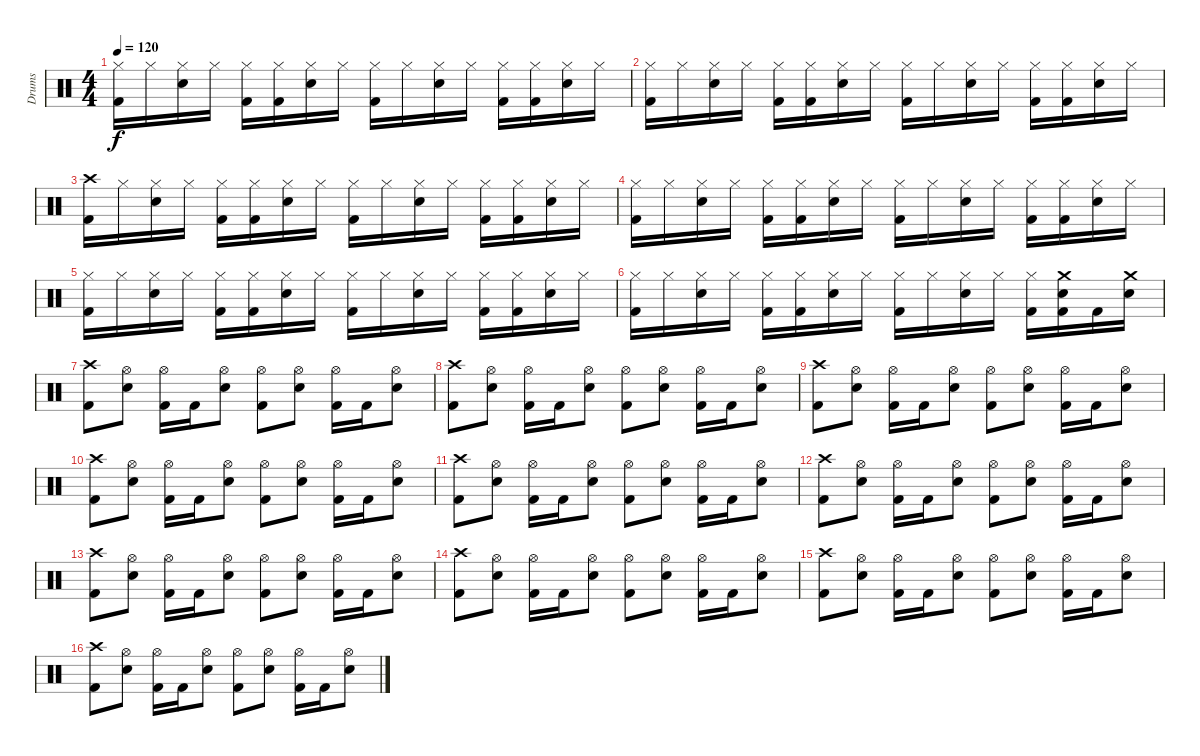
\track ("Drums" "Drums") {instrument percussion}
\staff {score}
\articulation defaults
\ts (4 4)
\tempo 120
\clef neutral
\ks c
("Hi-Hat (closed)" "Kick (hit) 2").16{dy f} "Hi-Hat (closed)".16 ("Hi-Hat (closed)" "Snare (hit) 2").16 "Hi-Hat (closed)".16 ("Hi-Hat (closed)" "Kick (hit) 2").16 ("Hi-Hat (closed)" "Kick (hit) 2").16 ("Hi-Hat (closed)" "Snare (hit) 2").16 "Hi-Hat (closed)".16 ("Hi-Hat (closed)" "Kick (hit) 2").16 "Hi-Hat (closed)".16 ("Hi-Hat (closed)" "Snare (hit) 2").16 "Hi-Hat (closed)".16 ("Hi-Hat (closed)" "Kick (hit) 2").16 ("Hi-Hat (closed)" "Kick (hit) 2").16 ("Hi-Hat (closed)" "Snare (hit) 2").16 "Hi-Hat (closed)".16 |
("Hi-Hat (closed)" "Kick (hit) 2").16 "Hi-Hat (closed)".16 ("Hi-Hat (closed)" "Snare (hit) 2").16 "Hi-Hat (closed)".16 ("Hi-Hat (closed)" "Kick (hit) 2").16 ("Hi-Hat (closed)" "Kick (hit) 2").16 ("Hi-Hat (closed)" "Snare (hit) 2").16 "Hi-Hat (closed)".16 ("Hi-Hat (closed)" "Kick (hit) 2").16 "Hi-Hat (closed)".16 ("Hi-Hat (closed)" "Snare (hit) 2").16 "Hi-Hat (closed)".16 ("Hi-Hat (closed)" "Kick (hit) 2").16 ("Hi-Hat (closed)" "Kick (hit) 2").16 ("Hi-Hat (closed)" "Snare (hit) 2").16 "Hi-Hat (closed)".16 |
("Crash high (hit)" "Kick (hit) 2").16 "Hi-Hat (closed)".16 ("Hi-Hat (closed)" "Snare (hit) 2").16 "Hi-Hat (closed)".16 ("Hi-Hat (closed)" "Kick (hit) 2").16 ("Hi-Hat (closed)" "Kick (hit) 2").16 ("Hi-Hat (closed)" "Snare (hit) 2").16 "Hi-Hat (closed)".16 ("Hi-Hat (closed)" "Kick (hit) 2").16 "Hi-Hat (closed)".16 ("Hi-Hat (closed)" "Snare (hit) 2").16 "Hi-Hat (closed)".16 ("Hi-Hat (closed)" "Kick (hit) 2").16 ("Hi-Hat (closed)" "Kick (hit) 2").16 ("Hi-Hat (closed)" "Snare (hit) 2").16 "Hi-Hat (closed)".16 |
("Hi-Hat (closed)" "Kick (hit) 2").16 "Hi-Hat (closed)".16 ("Hi-Hat (closed)" "Snare (hit) 2").16 "Hi-Hat (closed)".16 ("Hi-Hat (closed)" "Kick (hit) 2").16 ("Hi-Hat (closed)" "Kick (hit) 2").16 ("Hi-Hat (closed)" "Snare (hit) 2").16 "Hi-Hat (closed)".16 ("Hi-Hat (closed)" "Kick (hit) 2").16 "Hi-Hat (closed)".16 ("Hi-Hat (closed)" "Snare (hit) 2").16 "Hi-Hat (closed)".16 ("Hi-Hat (closed)" "Kick (hit) 2").16 ("Hi-Hat (closed)" "Kick (hit) 2").16 ("Hi-Hat (closed)" "Snare (hit) 2").16 "Hi-Hat (closed)".16 |
("Hi-Hat (closed)" "Kick (hit) 2").16 "Hi-Hat (closed)".16 ("Hi-Hat (closed)" "Snare (hit) 2").16 "Hi-Hat (closed)".16 ("Hi-Hat (closed)" "Kick (hit) 2").16 ("Hi-Hat (closed)" "Kick (hit) 2").16 ("Hi-Hat (closed)" "Snare (hit) 2").16 "Hi-Hat (closed)".16 ("Hi-Hat (closed)" "Kick (hit) 2").16 "Hi-Hat (closed)".16 ("Hi-Hat (closed)" "Snare (hit) 2").16 "Hi-Hat (closed)".16 ("Hi-Hat (closed)" "Kick (hit) 2").16 ("Hi-Hat (closed)" "Kick (hit) 2").16 ("Hi-Hat (closed)" "Snare (hit) 2").16 "Hi-Hat (closed)".16 |
("Hi-Hat (closed)" "Kick (hit) 2").16 "Hi-Hat (closed)".16 ("Hi-Hat (closed)" "Snare (hit) 2").16 "Hi-Hat (closed)".16 ("Hi-Hat (closed)" "Kick (hit) 2").16 ("Hi-Hat (closed)" "Kick (hit) 2").16 ("Hi-Hat (closed)" "Snare (hit) 2").16 "Hi-Hat (closed)".16 ("Hi-Hat (closed)" "Kick (hit) 2").16 "Hi-Hat (closed)".16 ("Hi-Hat (closed)" "Snare (hit) 2").16 "Hi-Hat (closed)".16 ("Hi-Hat (closed)" "Kick (hit) 2").16 ("Crash medium (hit)" "Snare (hit) 2" "Kick (hit) 2").16 "Kick (hit) 2".16 ("Crash medium (hit)" "Snare (hit) 2").16 |
("Crash high (hit)" "Kick (hit) 2").8 ("Hi-Hat (open)" "Snare (hit) 2").8 ("Hi-Hat (open)" "Kick (hit) 2").16 "Kick (hit) 2".16 ("Hi-Hat (open)" "Snare (hit) 2").8 ("Hi-Hat (open)" "Kick (hit) 2").8 ("Hi-Hat (open)" "Snare (hit) 2").8 ("Hi-Hat (open)" "Kick (hit) 2").16 "Kick (hit) 2".16 ("Hi-Hat (open)" "Snare (hit) 2").8 |
("Crash high (hit)" "Kick (hit) 2").8 ("Hi-Hat (open)" "Snare (hit) 2").8 ("Hi-Hat (open)" "Kick (hit) 2").16 "Kick (hit) 2".16 ("Hi-Hat (open)" "Snare (hit) 2").8 ("Hi-Hat (open)" "Kick (hit) 2").8 ("Hi-Hat (open)" "Snare (hit) 2").8 ("Hi-Hat (open)" "Kick (hit) 2").16 "Kick (hit) 2".16 ("Hi-Hat (open)" "Snare (hit) 2").8 |
("Crash high (hit)" "Kick (hit) 2").8 ("Hi-Hat (open)" "Snare (hit) 2").8 ("Hi-Hat (open)" "Kick (hit) 2").16 "Kick (hit) 2".16 ("Hi-Hat (open)" "Snare (hit) 2").8 ("Hi-Hat (open)" "Kick (hit) 2").8 ("Hi-Hat (open)" "Snare (hit) 2").8 ("Hi-Hat (open)" "Kick (hit) 2").16 "Kick (hit) 2".16 ("Hi-Hat (open)" "Snare (hit) 2").8 |
("Crash high (hit)" "Kick (hit) 2").8 ("Hi-Hat (open)" "Snare (hit) 2").8 ("Hi-Hat (open)" "Kick (hit) 2").16 "Kick (hit) 2".16 ("Hi-Hat (open)" "Snare (hit) 2").8 ("Hi-Hat (open)" "Kick (hit) 2").8 ("Hi-Hat (open)" "Snare (hit) 2").8 ("Hi-Hat (open)" "Kick (hit) 2").16 "Kick (hit) 2".16 ("Hi-Hat (open)" "Snare (hit) 2").8 |
("Crash high (hit)" "Kick (hit) 2").8 ("Hi-Hat (open)" "Snare (hit) 2").8 ("Hi-Hat (open)" "Kick (hit) 2").16 "Kick (hit) 2".16 ("Hi-Hat (open)" "Snare (hit) 2").8 ("Hi-Hat (open)" "Kick (hit) 2").8 ("Hi-Hat (open)" "Snare (hit) 2").8 ("Hi-Hat (open)" "Kick (hit) 2").16 "Kick (hit) 2".16 ("Hi-Hat (open)" "Snare (hit) 2").8 |
("Crash high (hit)" "Kick (hit) 2").8 ("Hi-Hat (open)" "Snare (hit) 2").8 ("Hi-Hat (open)" "Kick (hit) 2").16 "Kick (hit) 2".16 ("Hi-Hat (open)" "Snare (hit) 2").8 ("Hi-Hat (open)" "Kick (hit) 2").8 ("Hi-Hat (open)" "Snare (hit) 2").8 ("Hi-Hat (open)" "Kick (hit) 2").16 "Kick (hit) 2".16 ("Hi-Hat (open)" "Snare (hit) 2").8 |
("Crash high (hit)" "Kick (hit) 2").8 ("Hi-Hat (open)" "Snare (hit) 2").8 ("Hi-Hat (open)" "Kick (hit) 2").16 "Kick (hit) 2".16 ("Hi-Hat (open)" "Snare (hit) 2").8 ("Hi-Hat (open)" "Kick (hit) 2").8 ("Hi-Hat (open)" "Snare (hit) 2").8 ("Hi-Hat (open)" "Kick (hit) 2").16 "Kick (hit) 2".16 ("Hi-Hat (open)" "Snare (hit) 2").8 |
("Crash high (hit)" "Kick (hit) 2").8 ("Hi-Hat (open)" "Snare (hit) 2").8 ("Hi-Hat (open)" "Kick (hit) 2").16 "Kick (hit) 2".16 ("Hi-Hat (open)" "Snare (hit) 2").8 ("Hi-Hat (open)" "Kick (hit) 2").8 ("Hi-Hat (open)" "Snare (hit) 2").8 ("Hi-Hat (open)" "Kick (hit) 2").16 "Kick (hit) 2".16 ("Hi-Hat (open)" "Snare (hit) 2").8 |
("Crash high (hit)" "Kick (hit) 2").8 ("Hi-Hat (open)" "Snare (hit) 2").8 ("Hi-Hat (open)" "Kick (hit) 2").16 "Kick (hit) 2".16 ("Hi-Hat (open)" "Snare (hit) 2").8 ("Hi-Hat (open)" "Kick (hit) 2").8 ("Hi-Hat (open)" "Snare (hit) 2").8 ("Hi-Hat (open)" "Kick (hit) 2").16 "Kick (hit) 2".16 ("Hi-Hat (open)" "Snare (hit) 2").8 |
("Crash high (hit)" "Kick (hit) 2").8 ("Hi-Hat (open)" "Snare (hit) 2").8 ("Hi-Hat (open)" "Kick (hit) 2").16 "Kick (hit) 2".16 ("Hi-Hat (open)" "Snare (hit) 2").8 ("Hi-Hat (open)" "Kick (hit) 2").8 ("Hi-Hat (open)" "Snare (hit) 2").8 ("Hi-Hat (open)" "Kick (hit) 2").16 "Kick (hit) 2".16 ("Hi-Hat (open)" "Snare (hit) 2").8
